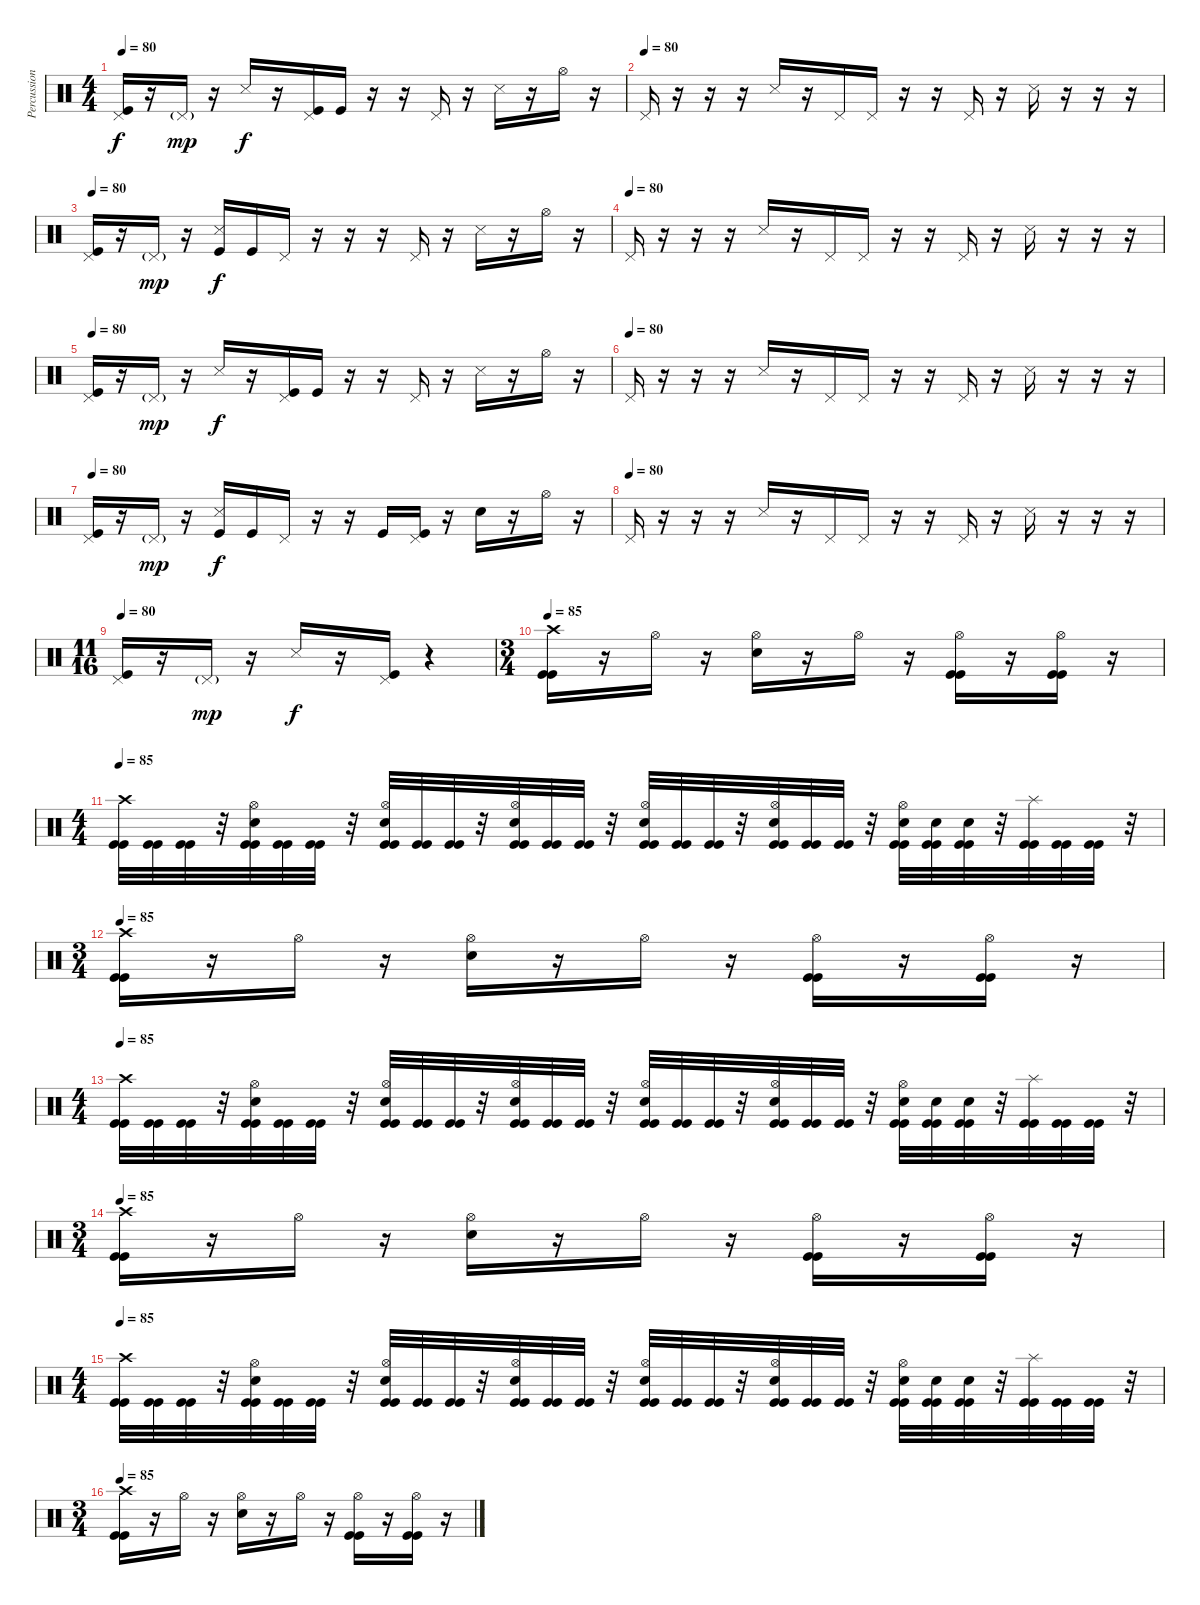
\track ("Percussions" "Percussion") {instrument percussion}
\staff {score}
\articulation defaults
\ts (4 4)
\tempo 80
\clef neutral
\ks c
("Pedal Hi-Hat (hit)" "Kick (hit)").16{dy f} r.16 "Pedal Hi-Hat (hit)"{g}.16{dy mp} r.16 "Snare (side stick) 3".16{dy f} r.16 ("Pedal Hi-Hat (hit)" "Kick (hit)").16 "Kick (hit)".16 r.16 r.16 "Pedal Hi-Hat (hit)".16 r.16 "Snare (side stick) 3".16 r.16 "Hi-Hat (open)".16 r.16 |
\tempo (80)
"Pedal Hi-Hat (hit)".16 r.16 r.16 r.16 "Snare (side stick) 3".16 r.16 "Pedal Hi-Hat (hit)".16 "Pedal Hi-Hat (hit)".16 r.16 r.16 "Pedal Hi-Hat (hit)".16 r.16 "Snare (side stick) 3".16 r.16 r.16 r.16 |
\tempo 80
("Pedal Hi-Hat (hit)" "Kick (hit)").16 r.16 "Pedal Hi-Hat (hit)"{g}.16{dy mp} r.16 ("Snare (side stick) 3" "Kick (hit)").16{dy f} "Kick (hit)".16 "Pedal Hi-Hat (hit)".16 r.16 r.16 r.16 "Pedal Hi-Hat (hit)".16 r.16 "Snare (side stick) 3".16 r.16 "Hi-Hat (open)".16 r.16 |
\tempo (80)
"Pedal Hi-Hat (hit)".16 r.16 r.16 r.16 "Snare (side stick) 3".16 r.16 "Pedal Hi-Hat (hit)".16 "Pedal Hi-Hat (hit)".16 r.16 r.16 "Pedal Hi-Hat (hit)".16 r.16 "Snare (side stick) 3".16 r.16 r.16 r.16 |
\tempo 80
("Pedal Hi-Hat (hit)" "Kick (hit)").16 r.16 "Pedal Hi-Hat (hit)"{g}.16{dy mp} r.16 "Snare (side stick) 3".16{dy f} r.16 ("Pedal Hi-Hat (hit)" "Kick (hit)").16 "Kick (hit)".16 r.16 r.16 "Pedal Hi-Hat (hit)".16 r.16 "Snare (side stick) 3".16 r.16 "Hi-Hat (open)".16 r.16 |
\tempo (80)
"Pedal Hi-Hat (hit)".16 r.16 r.16 r.16 "Snare (side stick) 3".16 r.16 "Pedal Hi-Hat (hit)".16 "Pedal Hi-Hat (hit)".16 r.16 r.16 "Pedal Hi-Hat (hit)".16 r.16 "Snare (side stick) 3".16 r.16 r.16 r.16 |
\tempo 80
("Pedal Hi-Hat (hit)" "Kick (hit)").16 r.16 "Pedal Hi-Hat (hit)"{g}.16{dy mp} r.16 ("Snare (side stick) 3" "Kick (hit)").16{dy f} "Kick (hit)".16 "Pedal Hi-Hat (hit)".16 r.16 r.16 "Kick (hit)".16 ("Pedal Hi-Hat (hit)" "Kick (hit)").16 r.16 "Electric Snare (hit)".16 r.16 "Hi-Hat (open)".16 r.16 |
\tempo (80)
"Pedal Hi-Hat (hit)".16 r.16 r.16 r.16 "Snare (side stick) 3".16 r.16 "Pedal Hi-Hat (hit)".16 "Pedal Hi-Hat (hit)".16 r.16 r.16 "Pedal Hi-Hat (hit)".16 r.16 "Snare (side stick) 3".16 r.16 r.16 r.16 |
\ts (11 16)
\tempo 80
("Pedal Hi-Hat (hit)" "Kick (hit)").16 r.16 "Pedal Hi-Hat (hit)"{g}.16{dy mp} r.16 "Snare (side stick) 3".16{dy f} r.16 ("Pedal Hi-Hat (hit)" "Kick (hit)").16 r.4 |
\ts (3 4)
\tempo 85
("Crash high (hit)" "Kick (hit)" "Kick (hit)").16 r.16 "Hi-Hat (open)".16 r.16 ("Hi-Hat (open)" "Electric Snare (hit)").16 r.16 "Hi-Hat (open)".16 r.16 ("Hi-Hat (open)" "Kick (hit)" "Kick (hit)").16 r.16 ("Hi-Hat (open)" "Kick (hit)" "Kick (hit)").16 r.16 |
\ts (4 4)
\tempo 85
("Crash high (hit)" "Kick (hit)" "Kick (hit)").32 ("Kick (hit)" "Kick (hit)").32 ("Kick (hit)" "Kick (hit)").32 r.32 ("Hi-Hat (open)" "Electric Snare (hit)" "Kick (hit)" "Kick (hit)").32 ("Kick (hit)" "Kick (hit)").32 ("Kick (hit)" "Kick (hit)").32 r.32 ("Hi-Hat (open)" "Electric Snare (hit)" "Kick (hit)" "Kick (hit)").32 ("Kick (hit)" "Kick (hit)").32 ("Kick (hit)" "Kick (hit)").32 r.32 ("Hi-Hat (open)" "Electric Snare (hit)" "Kick (hit)" "Kick (hit)").32 ("Kick (hit)" "Kick (hit)").32 ("Kick (hit)" "Kick (hit)").32 r.32 ("Hi-Hat (open)" "Electric Snare (hit)" "Kick (hit)" "Kick (hit)").32 ("Kick (hit)" "Kick (hit)").32 ("Kick (hit)" "Kick (hit)").32 r.32 ("Hi-Hat (open)" "Electric Snare (hit)" "Kick (hit)" "Kick (hit)").32 ("Kick (hit)" "Kick (hit)").32 ("Kick (hit)" "Kick (hit)").32 r.32 ("Hi-Hat (open)" "Electric Snare (hit)" "Kick (hit)" "Kick (hit)").32 ("Electric Snare (hit)" "Kick (hit)" "Kick (hit)").32 ("Electric Snare (hit)" "Kick (hit)" "Kick (hit)").32 r.32 ("Splash (hit)" "Kick (hit)" "Kick (hit)").32 ("Kick (hit)" "Kick (hit)").32 ("Kick (hit)" "Kick (hit)").32 r.32 |
\ts (3 4)
\tempo 85
("Crash high (hit)" "Kick (hit)" "Kick (hit)").16 r.16 "Hi-Hat (open)".16 r.16 ("Hi-Hat (open)" "Electric Snare (hit)").16 r.16 "Hi-Hat (open)".16 r.16 ("Hi-Hat (open)" "Kick (hit)" "Kick (hit)").16 r.16 ("Hi-Hat (open)" "Kick (hit)" "Kick (hit)").16 r.16 |
\ts (4 4)
\tempo 85
("Crash high (hit)" "Kick (hit)" "Kick (hit)").32 ("Kick (hit)" "Kick (hit)").32 ("Kick (hit)" "Kick (hit)").32 r.32 ("Hi-Hat (open)" "Electric Snare (hit)" "Kick (hit)" "Kick (hit)").32 ("Kick (hit)" "Kick (hit)").32 ("Kick (hit)" "Kick (hit)").32 r.32 ("Hi-Hat (open)" "Electric Snare (hit)" "Kick (hit)" "Kick (hit)").32 ("Kick (hit)" "Kick (hit)").32 ("Kick (hit)" "Kick (hit)").32 r.32 ("Hi-Hat (open)" "Electric Snare (hit)" "Kick (hit)" "Kick (hit)").32 ("Kick (hit)" "Kick (hit)").32 ("Kick (hit)" "Kick (hit)").32 r.32 ("Hi-Hat (open)" "Electric Snare (hit)" "Kick (hit)" "Kick (hit)").32 ("Kick (hit)" "Kick (hit)").32 ("Kick (hit)" "Kick (hit)").32 r.32 ("Hi-Hat (open)" "Electric Snare (hit)" "Kick (hit)" "Kick (hit)").32 ("Kick (hit)" "Kick (hit)").32 ("Kick (hit)" "Kick (hit)").32 r.32 ("Hi-Hat (open)" "Electric Snare (hit)" "Kick (hit)" "Kick (hit)").32 ("Electric Snare (hit)" "Kick (hit)" "Kick (hit)").32 ("Electric Snare (hit)" "Kick (hit)" "Kick (hit)").32 r.32 ("Splash (hit)" "Kick (hit)" "Kick (hit)").32 ("Kick (hit)" "Kick (hit)").32 ("Kick (hit)" "Kick (hit)").32 r.32 |
\ts (3 4)
\tempo 85
("Crash high (hit)" "Kick (hit)" "Kick (hit)").16 r.16 "Hi-Hat (open)".16 r.16 ("Hi-Hat (open)" "Electric Snare (hit)").16 r.16 "Hi-Hat (open)".16 r.16 ("Hi-Hat (open)" "Kick (hit)" "Kick (hit)").16 r.16 ("Hi-Hat (open)" "Kick (hit)" "Kick (hit)").16 r.16 |
\ts (4 4)
\tempo 85
("Crash high (hit)" "Kick (hit)" "Kick (hit)").32 ("Kick (hit)" "Kick (hit)").32 ("Kick (hit)" "Kick (hit)").32 r.32 ("Hi-Hat (open)" "Electric Snare (hit)" "Kick (hit)" "Kick (hit)").32 ("Kick (hit)" "Kick (hit)").32 ("Kick (hit)" "Kick (hit)").32 r.32 ("Hi-Hat (open)" "Electric Snare (hit)" "Kick (hit)" "Kick (hit)").32 ("Kick (hit)" "Kick (hit)").32 ("Kick (hit)" "Kick (hit)").32 r.32 ("Hi-Hat (open)" "Electric Snare (hit)" "Kick (hit)" "Kick (hit)").32 ("Kick (hit)" "Kick (hit)").32 ("Kick (hit)" "Kick (hit)").32 r.32 ("Hi-Hat (open)" "Electric Snare (hit)" "Kick (hit)" "Kick (hit)").32 ("Kick (hit)" "Kick (hit)").32 ("Kick (hit)" "Kick (hit)").32 r.32 ("Hi-Hat (open)" "Electric Snare (hit)" "Kick (hit)" "Kick (hit)").32 ("Kick (hit)" "Kick (hit)").32 ("Kick (hit)" "Kick (hit)").32 r.32 ("Hi-Hat (open)" "Electric Snare (hit)" "Kick (hit)" "Kick (hit)").32 ("Electric Snare (hit)" "Kick (hit)" "Kick (hit)").32 ("Electric Snare (hit)" "Kick (hit)" "Kick (hit)").32 r.32 ("Splash (hit)" "Kick (hit)" "Kick (hit)").32 ("Kick (hit)" "Kick (hit)").32 ("Kick (hit)" "Kick (hit)").32 r.32 |
\ts (3 4)
\tempo 85
("Crash high (hit)" "Kick (hit)" "Kick (hit)").16 r.16 "Hi-Hat (open)".16 r.16 ("Hi-Hat (open)" "Electric Snare (hit)").16 r.16 "Hi-Hat (open)".16 r.16 ("Hi-Hat (open)" "Kick (hit)" "Kick (hit)").16 r.16 ("Hi-Hat (open)" "Kick (hit)" "Kick (hit)").16 r.16
